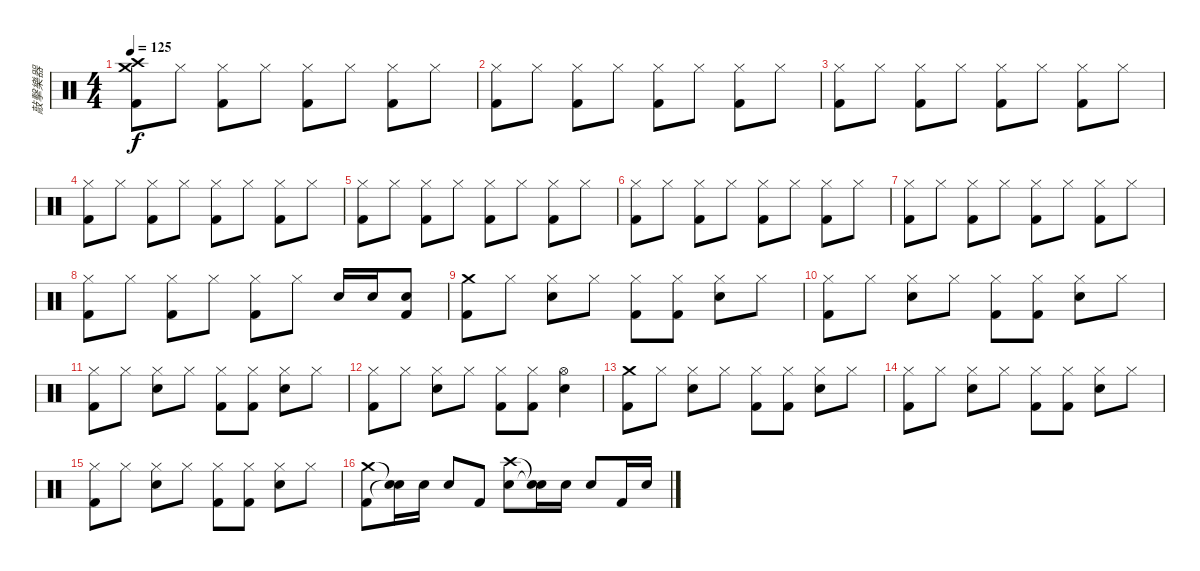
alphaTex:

\track ("敲擊樂器" "敲擊樂器") {instrument percussion}
\staff {score}
\articulation defaults
\ts (4 4)
\tempo 125
\clef neutral
\ks c
("Crash medium (hit)" "Crash high (hit)" "Kick (hit) 2").8{dy f} "Hi-Hat (closed)".8 ("Hi-Hat (closed)" "Kick (hit) 2").8 "Hi-Hat (closed)".8 ("Hi-Hat (closed)" "Kick (hit) 2").8 "Hi-Hat (closed)".8 ("Hi-Hat (closed)" "Kick (hit) 2").8 "Hi-Hat (closed)".8 |
("Hi-Hat (closed)" "Kick (hit) 2").8 "Hi-Hat (closed)".8 ("Hi-Hat (closed)" "Kick (hit) 2").8 "Hi-Hat (closed)".8 ("Hi-Hat (closed)" "Kick (hit) 2").8 "Hi-Hat (closed)".8 ("Hi-Hat (closed)" "Kick (hit) 2").8 "Hi-Hat (closed)".8 |
("Hi-Hat (closed)" "Kick (hit) 2").8 "Hi-Hat (closed)".8 ("Hi-Hat (closed)" "Kick (hit) 2").8 "Hi-Hat (closed)".8 ("Hi-Hat (closed)" "Kick (hit) 2").8 "Hi-Hat (closed)".8 ("Hi-Hat (closed)" "Kick (hit) 2").8 "Hi-Hat (closed)".8 |
("Hi-Hat (closed)" "Kick (hit) 2").8 "Hi-Hat (closed)".8 ("Hi-Hat (closed)" "Kick (hit) 2").8 "Hi-Hat (closed)".8 ("Hi-Hat (closed)" "Kick (hit) 2").8 "Hi-Hat (closed)".8 ("Hi-Hat (closed)" "Kick (hit) 2").8 "Hi-Hat (closed)".8 |
("Hi-Hat (closed)" "Kick (hit) 2").8 "Hi-Hat (closed)".8 ("Hi-Hat (closed)" "Kick (hit) 2").8 "Hi-Hat (closed)".8 ("Hi-Hat (closed)" "Kick (hit) 2").8 "Hi-Hat (closed)".8 ("Hi-Hat (closed)" "Kick (hit) 2").8 "Hi-Hat (closed)".8 |
("Hi-Hat (closed)" "Kick (hit) 2").8 "Hi-Hat (closed)".8 ("Hi-Hat (closed)" "Kick (hit) 2").8 "Hi-Hat (closed)".8 ("Hi-Hat (closed)" "Kick (hit) 2").8 "Hi-Hat (closed)".8 ("Hi-Hat (closed)" "Kick (hit) 2").8 "Hi-Hat (closed)".8 |
("Hi-Hat (closed)" "Kick (hit) 2").8 "Hi-Hat (closed)".8 ("Hi-Hat (closed)" "Kick (hit) 2").8 "Hi-Hat (closed)".8 ("Hi-Hat (closed)" "Kick (hit) 2").8 "Hi-Hat (closed)".8 ("Hi-Hat (closed)" "Kick (hit) 2").8 "Hi-Hat (closed)".8 |
("Hi-Hat (closed)" "Kick (hit) 2").8 "Hi-Hat (closed)".8 ("Hi-Hat (closed)" "Kick (hit) 2").8 "Hi-Hat (closed)".8 ("Hi-Hat (closed)" "Kick (hit) 2").8 "Hi-Hat (closed)".8 "Snare (hit) 2".16 "Snare (hit) 2".16 ("Snare (hit) 2" "Kick (hit) 2").8 |
("Crash medium (hit)" "Kick (hit) 2").8 "Hi-Hat (closed)".8 ("Hi-Hat (closed)" "Snare (hit) 2").8 "Hi-Hat (closed)".8 ("Hi-Hat (closed)" "Kick (hit) 2").8 ("Hi-Hat (closed)" "Kick (hit) 2").8 ("Hi-Hat (closed)" "Snare (hit) 2").8 "Hi-Hat (closed)".8 |
("Hi-Hat (closed)" "Kick (hit) 2").8 "Hi-Hat (closed)".8 ("Hi-Hat (closed)" "Snare (hit) 2").8 "Hi-Hat (closed)".8 ("Hi-Hat (closed)" "Kick (hit) 2").8 ("Hi-Hat (closed)" "Kick (hit) 2").8 ("Hi-Hat (closed)" "Snare (hit) 2").8 "Hi-Hat (closed)".8 |
("Hi-Hat (closed)" "Kick (hit) 2").8 "Hi-Hat (closed)".8 ("Hi-Hat (closed)" "Snare (hit) 2").8 "Hi-Hat (closed)".8 ("Hi-Hat (closed)" "Kick (hit) 2").8 ("Hi-Hat (closed)" "Kick (hit) 2").8 ("Hi-Hat (closed)" "Snare (hit) 2").8 "Hi-Hat (closed)".8 |
("Hi-Hat (closed)" "Kick (hit) 2").8 "Hi-Hat (closed)".8 ("Hi-Hat (closed)" "Snare (hit) 2").8 "Hi-Hat (closed)".8 ("Hi-Hat (closed)" "Kick (hit) 2").8 ("Hi-Hat (closed)" "Kick (hit) 2").8 ("Hi-Hat (open)" "Snare (hit) 2").4 |
("Crash medium (hit)" "Kick (hit) 2").8 "Hi-Hat (closed)".8 ("Hi-Hat (closed)" "Snare (hit) 2").8 "Hi-Hat (closed)".8 ("Hi-Hat (closed)" "Kick (hit) 2").8 ("Hi-Hat (closed)" "Kick (hit) 2").8 ("Hi-Hat (closed)" "Snare (hit) 2").8 "Hi-Hat (closed)".8 |
("Hi-Hat (closed)" "Kick (hit) 2").8 "Hi-Hat (closed)".8 ("Hi-Hat (closed)" "Snare (hit) 2").8 "Hi-Hat (closed)".8 ("Hi-Hat (closed)" "Kick (hit) 2").8 ("Hi-Hat (closed)" "Kick (hit) 2").8 ("Hi-Hat (closed)" "Snare (hit) 2").8 "Hi-Hat (closed)".8 |
("Hi-Hat (closed)" "Kick (hit) 2").8 "Hi-Hat (closed)".8 ("Hi-Hat (closed)" "Snare (hit) 2").8 "Hi-Hat (closed)".8 ("Hi-Hat (closed)" "Kick (hit) 2").8 ("Hi-Hat (closed)" "Kick (hit) 2").8 ("Hi-Hat (closed)" "Snare (hit) 2").8 "Hi-Hat (closed)".8 |
("Crash medium (hit)" "Kick (hit) 2").8 ("Snare (hit)"{t} "Snare (hit)"{t}).16 "Snare (hit) 2".16 "Snare (hit) 2".8 "Kick (hit) 2".8 ("Crash high (hit)" "Snare (hit) 2").8 ("Snare (hit)"{t} "Snare (hit)"{t}).16 "Snare (hit) 2".16 "Snare (hit) 2".8 "Kick (hit) 2".16 "Snare (hit) 2".16
